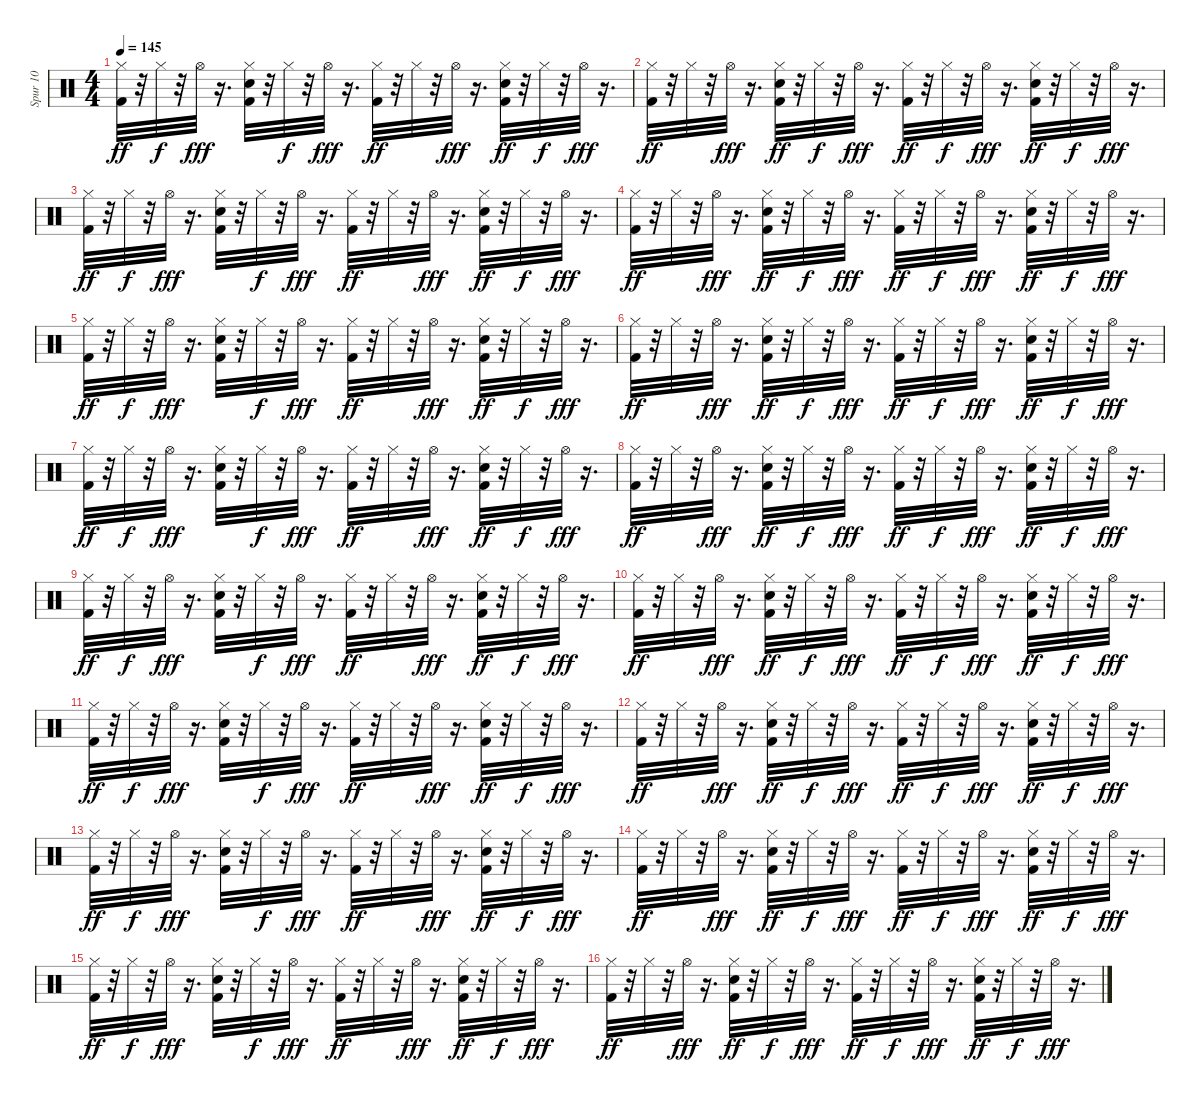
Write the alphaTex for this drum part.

\track ("Spur 10" "Spur 10") {instrument percussion}
\staff {score}
\articulation defaults
\ts (4 4)
\tempo 145
\clef neutral
\ks c
("Hi-Hat (closed)" "Kick (hit) 2").32{dy ff} r.32 "Hi-Hat (closed)".32{dy f} r.32 "Hi-Hat (open)".32{dy fff} r.16{d} ("Hand Clap (hit)" "Kick (hit) 2" "Hi-Hat (closed)").32 r.32 "Hi-Hat (closed)".32{dy f} r.32 "Hi-Hat (open)".32{dy fff} r.16{d} ("Hi-Hat (closed)" "Kick (hit) 2").32{dy ff} r.32 "Hi-Hat (closed)".32 r.32 "Hi-Hat (open)".32{dy fff} r.16{d} ("Hand Clap (hit)" "Hi-Hat (closed)" "Kick (hit) 2").32{dy ff} r.32 "Hi-Hat (closed)".32{dy f} r.32 "Hi-Hat (open)".32{dy fff} r.16{d} |
("Hi-Hat (closed)" "Kick (hit) 2").32{dy ff} r.32 "Hi-Hat (closed)".32 r.32 "Hi-Hat (open)".32{dy fff} r.16{d} ("Hand Clap (hit)" "Hi-Hat (closed)" "Kick (hit) 2").32{dy ff} r.32 "Hi-Hat (closed)".32{dy f} r.32 "Hi-Hat (open)".32{dy fff} r.16{d} ("Hi-Hat (closed)" "Kick (hit) 2").32{dy ff} r.32 "Hi-Hat (closed)".32{dy f} r.32 "Hi-Hat (open)".32{dy fff} r.16{d} ("Hi-Hat (closed)" "Hand Clap (hit)" "Kick (hit) 2").32{dy ff} r.32 "Hi-Hat (closed)".32{dy f} r.32 "Hi-Hat (open)".32{dy fff} r.16{d} |
("Hi-Hat (closed)" "Kick (hit) 2").32{dy ff} r.32 "Hi-Hat (closed)".32{dy f} r.32 "Hi-Hat (open)".32{dy fff} r.16{d} ("Hand Clap (hit)" "Kick (hit) 2" "Hi-Hat (closed)").32 r.32 "Hi-Hat (closed)".32{dy f} r.32 "Hi-Hat (open)".32{dy fff} r.16{d} ("Hi-Hat (closed)" "Kick (hit) 2").32{dy ff} r.32 "Hi-Hat (closed)".32 r.32 "Hi-Hat (open)".32{dy fff} r.16{d} ("Hand Clap (hit)" "Hi-Hat (closed)" "Kick (hit) 2").32{dy ff} r.32 "Hi-Hat (closed)".32{dy f} r.32 "Hi-Hat (open)".32{dy fff} r.16{d} |
("Hi-Hat (closed)" "Kick (hit) 2").32{dy ff} r.32 "Hi-Hat (closed)".32 r.32 "Hi-Hat (open)".32{dy fff} r.16{d} ("Hand Clap (hit)" "Hi-Hat (closed)" "Kick (hit) 2").32{dy ff} r.32 "Hi-Hat (closed)".32{dy f} r.32 "Hi-Hat (open)".32{dy fff} r.16{d} ("Hi-Hat (closed)" "Kick (hit) 2").32{dy ff} r.32 "Hi-Hat (closed)".32{dy f} r.32 "Hi-Hat (open)".32{dy fff} r.16{d} ("Hi-Hat (closed)" "Hand Clap (hit)" "Kick (hit) 2").32{dy ff} r.32 "Hi-Hat (closed)".32{dy f} r.32 "Hi-Hat (open)".32{dy fff} r.16{d} |
("Hi-Hat (closed)" "Kick (hit) 2").32{dy ff} r.32 "Hi-Hat (closed)".32{dy f} r.32 "Hi-Hat (open)".32{dy fff} r.16{d} ("Hand Clap (hit)" "Kick (hit) 2" "Hi-Hat (closed)").32 r.32 "Hi-Hat (closed)".32{dy f} r.32 "Hi-Hat (open)".32{dy fff} r.16{d} ("Hi-Hat (closed)" "Kick (hit) 2").32{dy ff} r.32 "Hi-Hat (closed)".32 r.32 "Hi-Hat (open)".32{dy fff} r.16{d} ("Hand Clap (hit)" "Hi-Hat (closed)" "Kick (hit) 2").32{dy ff} r.32 "Hi-Hat (closed)".32{dy f} r.32 "Hi-Hat (open)".32{dy fff} r.16{d} |
("Hi-Hat (closed)" "Kick (hit) 2").32{dy ff} r.32 "Hi-Hat (closed)".32 r.32 "Hi-Hat (open)".32{dy fff} r.16{d} ("Hand Clap (hit)" "Hi-Hat (closed)" "Kick (hit) 2").32{dy ff} r.32 "Hi-Hat (closed)".32{dy f} r.32 "Hi-Hat (open)".32{dy fff} r.16{d} ("Hi-Hat (closed)" "Kick (hit) 2").32{dy ff} r.32 "Hi-Hat (closed)".32{dy f} r.32 "Hi-Hat (open)".32{dy fff} r.16{d} ("Hi-Hat (closed)" "Hand Clap (hit)" "Kick (hit) 2").32{dy ff} r.32 "Hi-Hat (closed)".32{dy f} r.32 "Hi-Hat (open)".32{dy fff} r.16{d} |
("Hi-Hat (closed)" "Kick (hit) 2").32{dy ff} r.32 "Hi-Hat (closed)".32{dy f} r.32 "Hi-Hat (open)".32{dy fff} r.16{d} ("Hand Clap (hit)" "Kick (hit) 2" "Hi-Hat (closed)").32 r.32 "Hi-Hat (closed)".32{dy f} r.32 "Hi-Hat (open)".32{dy fff} r.16{d} ("Hi-Hat (closed)" "Kick (hit) 2").32{dy ff} r.32 "Hi-Hat (closed)".32 r.32 "Hi-Hat (open)".32{dy fff} r.16{d} ("Hand Clap (hit)" "Hi-Hat (closed)" "Kick (hit) 2").32{dy ff} r.32 "Hi-Hat (closed)".32{dy f} r.32 "Hi-Hat (open)".32{dy fff} r.16{d} |
("Hi-Hat (closed)" "Kick (hit) 2").32{dy ff} r.32 "Hi-Hat (closed)".32 r.32 "Hi-Hat (open)".32{dy fff} r.16{d} ("Hand Clap (hit)" "Hi-Hat (closed)" "Kick (hit) 2").32{dy ff} r.32 "Hi-Hat (closed)".32{dy f} r.32 "Hi-Hat (open)".32{dy fff} r.16{d} ("Hi-Hat (closed)" "Kick (hit) 2").32{dy ff} r.32 "Hi-Hat (closed)".32{dy f} r.32 "Hi-Hat (open)".32{dy fff} r.16{d} ("Hi-Hat (closed)" "Hand Clap (hit)" "Kick (hit) 2").32{dy ff} r.32 "Hi-Hat (closed)".32{dy f} r.32 "Hi-Hat (open)".32{dy fff} r.16{d} |
("Hi-Hat (closed)" "Kick (hit) 2").32{dy ff} r.32 "Hi-Hat (closed)".32{dy f} r.32 "Hi-Hat (open)".32{dy fff} r.16{d} ("Hand Clap (hit)" "Kick (hit) 2" "Hi-Hat (closed)").32 r.32 "Hi-Hat (closed)".32{dy f} r.32 "Hi-Hat (open)".32{dy fff} r.16{d} ("Hi-Hat (closed)" "Kick (hit) 2").32{dy ff} r.32 "Hi-Hat (closed)".32 r.32 "Hi-Hat (open)".32{dy fff} r.16{d} ("Hand Clap (hit)" "Hi-Hat (closed)" "Kick (hit) 2").32{dy ff} r.32 "Hi-Hat (closed)".32{dy f} r.32 "Hi-Hat (open)".32{dy fff} r.16{d} |
("Hi-Hat (closed)" "Kick (hit) 2").32{dy ff} r.32 "Hi-Hat (closed)".32 r.32 "Hi-Hat (open)".32{dy fff} r.16{d} ("Hand Clap (hit)" "Hi-Hat (closed)" "Kick (hit) 2").32{dy ff} r.32 "Hi-Hat (closed)".32{dy f} r.32 "Hi-Hat (open)".32{dy fff} r.16{d} ("Hi-Hat (closed)" "Kick (hit) 2").32{dy ff} r.32 "Hi-Hat (closed)".32{dy f} r.32 "Hi-Hat (open)".32{dy fff} r.16{d} ("Hi-Hat (closed)" "Hand Clap (hit)" "Kick (hit) 2").32{dy ff} r.32 "Hi-Hat (closed)".32{dy f} r.32 "Hi-Hat (open)".32{dy fff} r.16{d} |
("Hi-Hat (closed)" "Kick (hit) 2").32{dy ff} r.32 "Hi-Hat (closed)".32{dy f} r.32 "Hi-Hat (open)".32{dy fff} r.16{d} ("Hand Clap (hit)" "Kick (hit) 2" "Hi-Hat (closed)").32 r.32 "Hi-Hat (closed)".32{dy f} r.32 "Hi-Hat (open)".32{dy fff} r.16{d} ("Hi-Hat (closed)" "Kick (hit) 2").32{dy ff} r.32 "Hi-Hat (closed)".32 r.32 "Hi-Hat (open)".32{dy fff} r.16{d} ("Hand Clap (hit)" "Hi-Hat (closed)" "Kick (hit) 2").32{dy ff} r.32 "Hi-Hat (closed)".32{dy f} r.32 "Hi-Hat (open)".32{dy fff} r.16{d} |
("Hi-Hat (closed)" "Kick (hit) 2").32{dy ff} r.32 "Hi-Hat (closed)".32 r.32 "Hi-Hat (open)".32{dy fff} r.16{d} ("Hand Clap (hit)" "Hi-Hat (closed)" "Kick (hit) 2").32{dy ff} r.32 "Hi-Hat (closed)".32{dy f} r.32 "Hi-Hat (open)".32{dy fff} r.16{d} ("Hi-Hat (closed)" "Kick (hit) 2").32{dy ff} r.32 "Hi-Hat (closed)".32{dy f} r.32 "Hi-Hat (open)".32{dy fff} r.16{d} ("Hi-Hat (closed)" "Hand Clap (hit)" "Kick (hit) 2").32{dy ff} r.32 "Hi-Hat (closed)".32{dy f} r.32 "Hi-Hat (open)".32{dy fff} r.16{d} |
("Hi-Hat (closed)" "Kick (hit) 2").32{dy ff} r.32 "Hi-Hat (closed)".32{dy f} r.32 "Hi-Hat (open)".32{dy fff} r.16{d} ("Hand Clap (hit)" "Kick (hit) 2" "Hi-Hat (closed)").32 r.32 "Hi-Hat (closed)".32{dy f} r.32 "Hi-Hat (open)".32{dy fff} r.16{d} ("Hi-Hat (closed)" "Kick (hit) 2").32{dy ff} r.32 "Hi-Hat (closed)".32 r.32 "Hi-Hat (open)".32{dy fff} r.16{d} ("Hand Clap (hit)" "Hi-Hat (closed)" "Kick (hit) 2").32{dy ff} r.32 "Hi-Hat (closed)".32{dy f} r.32 "Hi-Hat (open)".32{dy fff} r.16{d} |
("Hi-Hat (closed)" "Kick (hit) 2").32{dy ff} r.32 "Hi-Hat (closed)".32 r.32 "Hi-Hat (open)".32{dy fff} r.16{d} ("Hand Clap (hit)" "Hi-Hat (closed)" "Kick (hit) 2").32{dy ff} r.32 "Hi-Hat (closed)".32{dy f} r.32 "Hi-Hat (open)".32{dy fff} r.16{d} ("Hi-Hat (closed)" "Kick (hit) 2").32{dy ff} r.32 "Hi-Hat (closed)".32{dy f} r.32 "Hi-Hat (open)".32{dy fff} r.16{d} ("Hi-Hat (closed)" "Hand Clap (hit)" "Kick (hit) 2").32{dy ff} r.32 "Hi-Hat (closed)".32{dy f} r.32 "Hi-Hat (open)".32{dy fff} r.16{d} |
("Hi-Hat (closed)" "Kick (hit) 2").32{dy ff} r.32 "Hi-Hat (closed)".32{dy f} r.32 "Hi-Hat (open)".32{dy fff} r.16{d} ("Hand Clap (hit)" "Kick (hit) 2" "Hi-Hat (closed)").32 r.32 "Hi-Hat (closed)".32{dy f} r.32 "Hi-Hat (open)".32{dy fff} r.16{d} ("Hi-Hat (closed)" "Kick (hit) 2").32{dy ff} r.32 "Hi-Hat (closed)".32 r.32 "Hi-Hat (open)".32{dy fff} r.16{d} ("Hand Clap (hit)" "Hi-Hat (closed)" "Kick (hit) 2").32{dy ff} r.32 "Hi-Hat (closed)".32{dy f} r.32 "Hi-Hat (open)".32{dy fff} r.16{d} |
("Hi-Hat (closed)" "Kick (hit) 2").32{dy ff} r.32 "Hi-Hat (closed)".32 r.32 "Hi-Hat (open)".32{dy fff} r.16{d} ("Hand Clap (hit)" "Hi-Hat (closed)" "Kick (hit) 2").32{dy ff} r.32 "Hi-Hat (closed)".32{dy f} r.32 "Hi-Hat (open)".32{dy fff} r.16{d} ("Hi-Hat (closed)" "Kick (hit) 2").32{dy ff} r.32 "Hi-Hat (closed)".32{dy f} r.32 "Hi-Hat (open)".32{dy fff} r.16{d} ("Hi-Hat (closed)" "Hand Clap (hit)" "Kick (hit) 2").32{dy ff} r.32 "Hi-Hat (closed)".32{dy f} r.32 "Hi-Hat (open)".32{dy fff} r.16{d}
